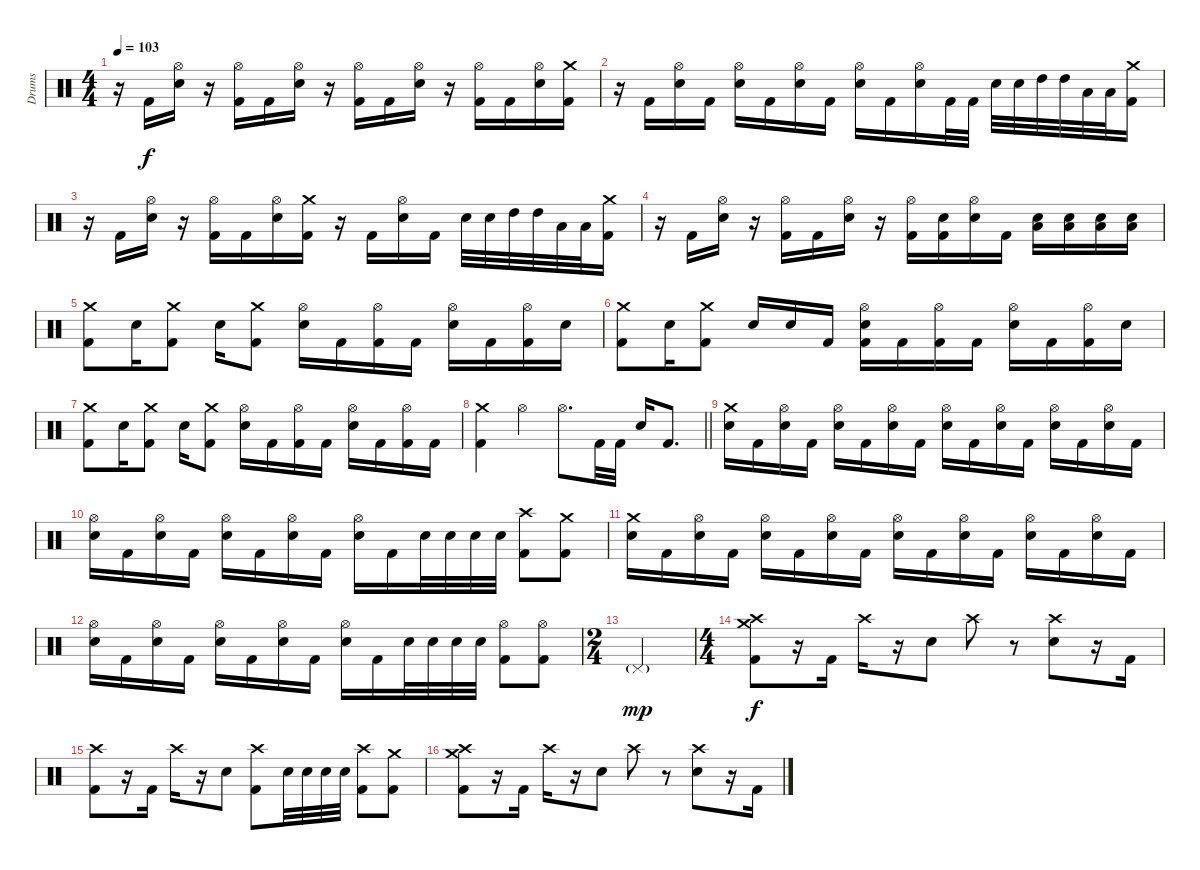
\track ("Drums" "Drums") {instrument percussion}
\staff {score}
\articulation defaults
\ts (4 4)
\tempo 103
\clef neutral
\ks c
r.16{dy f} "Kick (hit) 2".16 ("Hi-Hat (open)" "Electric Snare (hit)").16 r.16 ("Hi-Hat (open)" "Kick (hit) 2").16 "Kick (hit) 2".16 ("Hi-Hat (open)" "Electric Snare (hit)").16 r.16 ("Hi-Hat (open)" "Kick (hit) 2").16 "Kick (hit) 2".16 ("Hi-Hat (open)" "Electric Snare (hit)").16 r.16 ("Hi-Hat (open)" "Kick (hit) 2").16 "Kick (hit) 2".16 ("Hi-Hat (open)" "Electric Snare (hit)").16 ("Crash medium (hit)" "Kick (hit) 2").16 |
r.16 "Kick (hit) 2".16 ("Hi-Hat (open)" "Electric Snare (hit)").16 "Kick (hit) 2".16 ("Hi-Hat (open)" "Electric Snare (hit)").16 "Kick (hit) 2".16 ("Hi-Hat (open)" "Electric Snare (hit)").16 "Kick (hit) 2".16 ("Hi-Hat (open)" "Electric Snare (hit)").16 "Kick (hit) 2".16 ("Hi-Hat (open)" "Electric Snare (hit)").16 "Kick (hit) 2".32 "Kick (hit) 2".32 "Electric Snare (hit)".32 "Electric Snare (hit)".32 "High Tom (hit)".32 "High Tom (hit)".32 "Low Tom (hit)".32 "Low Tom (hit)".32 ("Crash medium (hit)" "Kick (hit) 2").16 |
r.16 "Kick (hit) 2".16 ("Hi-Hat (open)" "Electric Snare (hit)").16 r.16 ("Hi-Hat (open)" "Kick (hit) 2").16 "Kick (hit) 2".16 ("Hi-Hat (open)" "Electric Snare (hit)").16 ("Crash medium (hit)" "Kick (hit) 2").16 r.16 "Kick (hit) 2".16 ("Hi-Hat (open)" "Electric Snare (hit)").16 "Kick (hit) 2".16 "Electric Snare (hit)".32 "Electric Snare (hit)".32 "High Tom (hit)".32 "High Tom (hit)".32 "Low Tom (hit)".32 "Low Tom (hit)".32 ("Crash medium (hit)" "Kick (hit) 2").16 |
r.16 "Kick (hit) 2".16 ("Hi-Hat (open)" "Electric Snare (hit)").16 r.16 ("Hi-Hat (open)" "Kick (hit) 2").16 "Kick (hit) 2".16 ("Hi-Hat (open)" "Electric Snare (hit)").16 r.16 ("Hi-Hat (open)" "Kick (hit) 2").16 ("Electric Snare (hit)" "Kick (hit) 2").16 ("Hi-Hat (open)" "Electric Snare (hit)").16 "Kick (hit) 2".16 ("Low Floor Tom (hit)" "Electric Snare (hit)").16 ("Low Floor Tom (hit)" "Electric Snare (hit)").16 ("Low Floor Tom (hit)" "Electric Snare (hit)").16 ("Low Floor Tom (hit)" "Electric Snare (hit)").16 |
("Crash medium (hit)" "Kick (hit) 2").8 "Electric Snare (hit)".16 ("Crash medium (hit)" "Kick (hit) 2").8 "Electric Snare (hit)".16 ("Crash medium (hit)" "Kick (hit) 2").8 ("Hi-Hat (open)" "Electric Snare (hit)").16 "Kick (hit) 2".16 ("Hi-Hat (open)" "Kick (hit) 2").16 "Kick (hit) 2".16 ("Hi-Hat (open)" "Electric Snare (hit)").16 "Kick (hit) 2".16 ("Hi-Hat (open)" "Kick (hit) 2").16 "Electric Snare (hit)".16 |
("Crash medium (hit)" "Kick (hit) 2").8 "Electric Snare (hit)".16 ("Crash medium (hit)" "Kick (hit) 2").8 "Electric Snare (hit)".16 "Electric Snare (hit)".16 "Kick (hit) 2".16 ("Hi-Hat (open)" "Electric Snare (hit)" "Kick (hit) 2").16 "Kick (hit) 2".16 ("Hi-Hat (open)" "Kick (hit) 2").16 "Kick (hit) 2".16 ("Hi-Hat (open)" "Electric Snare (hit)").16 "Kick (hit) 2".16 ("Hi-Hat (open)" "Kick (hit) 2").16 "Electric Snare (hit)".16 |
("Crash medium (hit)" "Kick (hit) 2").8 "Electric Snare (hit)".16 ("Crash medium (hit)" "Kick (hit) 2").8 "Electric Snare (hit)".16 ("Crash medium (hit)" "Kick (hit) 2").8 ("Hi-Hat (open)" "Electric Snare (hit)").16 "Kick (hit) 2".16 ("Hi-Hat (open)" "Kick (hit) 2").16 "Kick (hit) 2".16 ("Hi-Hat (open)" "Electric Snare (hit)").16 "Kick (hit) 2".16 ("Hi-Hat (open)" "Kick (hit) 2").16 "Kick (hit) 2".16 |
\barLineRight lightlight
("Crash medium (hit)" "Kick (hit) 2").4 "Hi-Hat (open)".4 "Hi-Hat (open)".8{d} "Kick (hit) 2".32 "Kick (hit) 2".32 "Electric Snare (hit)".16 "Kick (hit) 2".8{d} |
("Crash medium (hit)" "Electric Snare (hit)").16 "Kick (hit) 2".16 ("Hi-Hat (open)" "Electric Snare (hit)").16 "Kick (hit) 2".16 ("Hi-Hat (open)" "Electric Snare (hit)").16 "Kick (hit) 2".16 ("Hi-Hat (open)" "Electric Snare (hit)").16 "Kick (hit) 2".16 ("Hi-Hat (open)" "Electric Snare (hit)").16 "Kick (hit) 2".16 ("Hi-Hat (open)" "Electric Snare (hit)").16 "Kick (hit) 2".16 ("Hi-Hat (open)" "Electric Snare (hit)").16 "Kick (hit) 2".16 ("Hi-Hat (open)" "Electric Snare (hit)").16 "Kick (hit) 2".16 |
("Hi-Hat (open)" "Electric Snare (hit)").16 "Kick (hit) 2".16 ("Hi-Hat (open)" "Electric Snare (hit)").16 "Kick (hit) 2".16 ("Hi-Hat (open)" "Electric Snare (hit)").16 "Kick (hit) 2".16 ("Hi-Hat (open)" "Electric Snare (hit)").16 "Kick (hit) 2".16 ("Hi-Hat (open)" "Electric Snare (hit)").16 "Kick (hit) 2".16 "Electric Snare (hit)".32 "Electric Snare (hit)".32 "Electric Snare (hit)".32 "Electric Snare (hit)".32 ("Crash high (hit)" "Kick (hit) 2").8 ("Crash medium (hit)" "Kick (hit) 2").8 |
("Crash medium (hit)" "Electric Snare (hit)").16 "Kick (hit) 2".16 ("Hi-Hat (open)" "Electric Snare (hit)").16 "Kick (hit) 2".16 ("Hi-Hat (open)" "Electric Snare (hit)").16 "Kick (hit) 2".16 ("Hi-Hat (open)" "Electric Snare (hit)").16 "Kick (hit) 2".16 ("Hi-Hat (open)" "Electric Snare (hit)").16 "Kick (hit) 2".16 ("Hi-Hat (open)" "Electric Snare (hit)").16 "Kick (hit) 2".16 ("Hi-Hat (open)" "Electric Snare (hit)").16 "Kick (hit) 2".16 ("Hi-Hat (open)" "Electric Snare (hit)").16 "Kick (hit) 2".16 |
("Hi-Hat (open)" "Electric Snare (hit)").16 "Kick (hit) 2".16 ("Hi-Hat (open)" "Electric Snare (hit)").16 "Kick (hit) 2".16 ("Hi-Hat (open)" "Electric Snare (hit)").16 "Kick (hit) 2".16 ("Hi-Hat (open)" "Electric Snare (hit)").16 "Kick (hit) 2".16 ("Hi-Hat (open)" "Electric Snare (hit)").16 "Kick (hit) 2".16 "Electric Snare (hit)".32 "Electric Snare (hit)".32 "Electric Snare (hit)".32 "Electric Snare (hit)".32 ("Hi-Hat (open)" "Kick (hit) 2").8 ("Hi-Hat (open)" "Kick (hit) 2").8 |
\ts (2 4)
"Pedal Hi-Hat (hit)"{g}.2{dy mp} |
\ts (4 4)
("Crash medium (hit)" "Crash high (hit)" "Kick (hit) 2").8{dy f} r.16 "Kick (hit) 2".16 "Crash high (hit)".16 r.16 "Electric Snare (hit)".8 "Crash high (hit)".8 r.8 ("Crash high (hit)" "Electric Snare (hit)").8 r.16 "Kick (hit) 2".16 |
("Crash high (hit)" "Kick (hit) 2").8 r.16 "Kick (hit) 2".16 "Crash high (hit)".16 r.16 "Electric Snare (hit)".8 ("Crash high (hit)" "Kick (hit) 2").8 "Electric Snare (hit)".32 "Electric Snare (hit)".32 "Electric Snare (hit)".32 "Electric Snare (hit)".32 ("Crash high (hit)" "Kick (hit) 2").8 ("Crash medium (hit)" "Kick (hit) 2").8 |
("Crash medium (hit)" "Crash high (hit)" "Kick (hit) 2").8 r.16 "Kick (hit) 2".16 "Crash high (hit)".16 r.16 "Electric Snare (hit)".8 "Crash high (hit)".8 r.8 ("Crash high (hit)" "Electric Snare (hit)").8 r.16 "Kick (hit) 2".16
